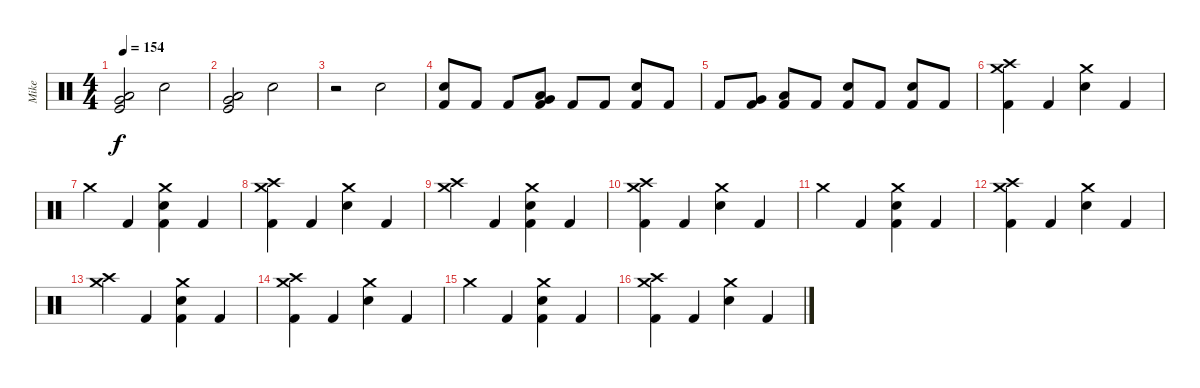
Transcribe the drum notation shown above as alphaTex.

\track ("Mike " "Mike ") {instrument percussion}
\staff {score}
\articulation defaults
\ts (4 4)
\tempo 154
\clef neutral
\ks c
("Low Floor Tom (hit)" "Very Low Tom (hit)" "Kick (hit)").2{dy f} "Electric Snare (hit)".2 |
("Low Floor Tom (hit)" "Very Low Tom (hit)" "Kick (hit)").2 "Electric Snare (hit)".2 |
r.2 "Electric Snare (hit)".2 |
("Electric Snare (hit)" "Kick (hit) 2").8 "Kick (hit) 2".8 "Kick (hit) 2".8 ("Very Low Tom (hit)" "Low Floor Tom (hit)" "Kick (hit) 2").8 "Kick (hit) 2".8 "Kick (hit) 2".8 ("Electric Snare (hit)" "Kick (hit) 2").8 "Kick (hit) 2".8 |
"Kick (hit) 2".8 ("Very Low Tom (hit)" "Kick (hit) 2").8 ("Low Floor Tom (hit)" "Kick (hit) 2").8 "Kick (hit) 2".8 ("Electric Snare (hit)" "Kick (hit) 2").8 "Kick (hit) 2".8 ("Electric Snare (hit)" "Kick (hit) 2").8 "Kick (hit) 2".8 |
("Crash high (hit)" "Crash medium (hit)" "Kick (hit) 2").4 "Kick (hit) 2".4 ("Crash medium (hit)" "Electric Snare (hit)").4 "Kick (hit) 2".4 |
"Crash medium (hit)".4 "Kick (hit) 2".4 ("Crash medium (hit)" "Electric Snare (hit)" "Kick (hit) 2").4 "Kick (hit) 2".4 |
("Crash high (hit)" "Crash medium (hit)" "Kick (hit) 2").4 "Kick (hit) 2".4 ("Crash medium (hit)" "Electric Snare (hit)").4 "Kick (hit) 2".4 |
("Crash medium (hit)" "Crash high (hit)").4 "Kick (hit) 2".4 ("Crash medium (hit)" "Electric Snare (hit)" "Kick (hit) 2").4 "Kick (hit) 2".4 |
("Crash high (hit)" "Crash medium (hit)" "Kick (hit) 2").4 "Kick (hit) 2".4 ("Crash medium (hit)" "Electric Snare (hit)").4 "Kick (hit) 2".4 |
"Crash medium (hit)".4 "Kick (hit) 2".4 ("Crash medium (hit)" "Electric Snare (hit)" "Kick (hit) 2").4 "Kick (hit) 2".4 |
("Crash high (hit)" "Crash medium (hit)" "Kick (hit) 2").4 "Kick (hit) 2".4 ("Crash medium (hit)" "Electric Snare (hit)").4 "Kick (hit) 2".4 |
("Crash medium (hit)" "Crash high (hit)").4 "Kick (hit) 2".4 ("Crash medium (hit)" "Electric Snare (hit)" "Kick (hit) 2").4 "Kick (hit) 2".4 |
("Crash high (hit)" "Crash medium (hit)" "Kick (hit) 2").4 "Kick (hit) 2".4 ("Crash medium (hit)" "Electric Snare (hit)").4 "Kick (hit) 2".4 |
"Crash medium (hit)".4 "Kick (hit) 2".4 ("Crash medium (hit)" "Electric Snare (hit)" "Kick (hit) 2").4 "Kick (hit) 2".4 |
("Crash high (hit)" "Crash medium (hit)" "Kick (hit) 2").4 "Kick (hit) 2".4 ("Crash medium (hit)" "Electric Snare (hit)").4 "Kick (hit) 2".4
